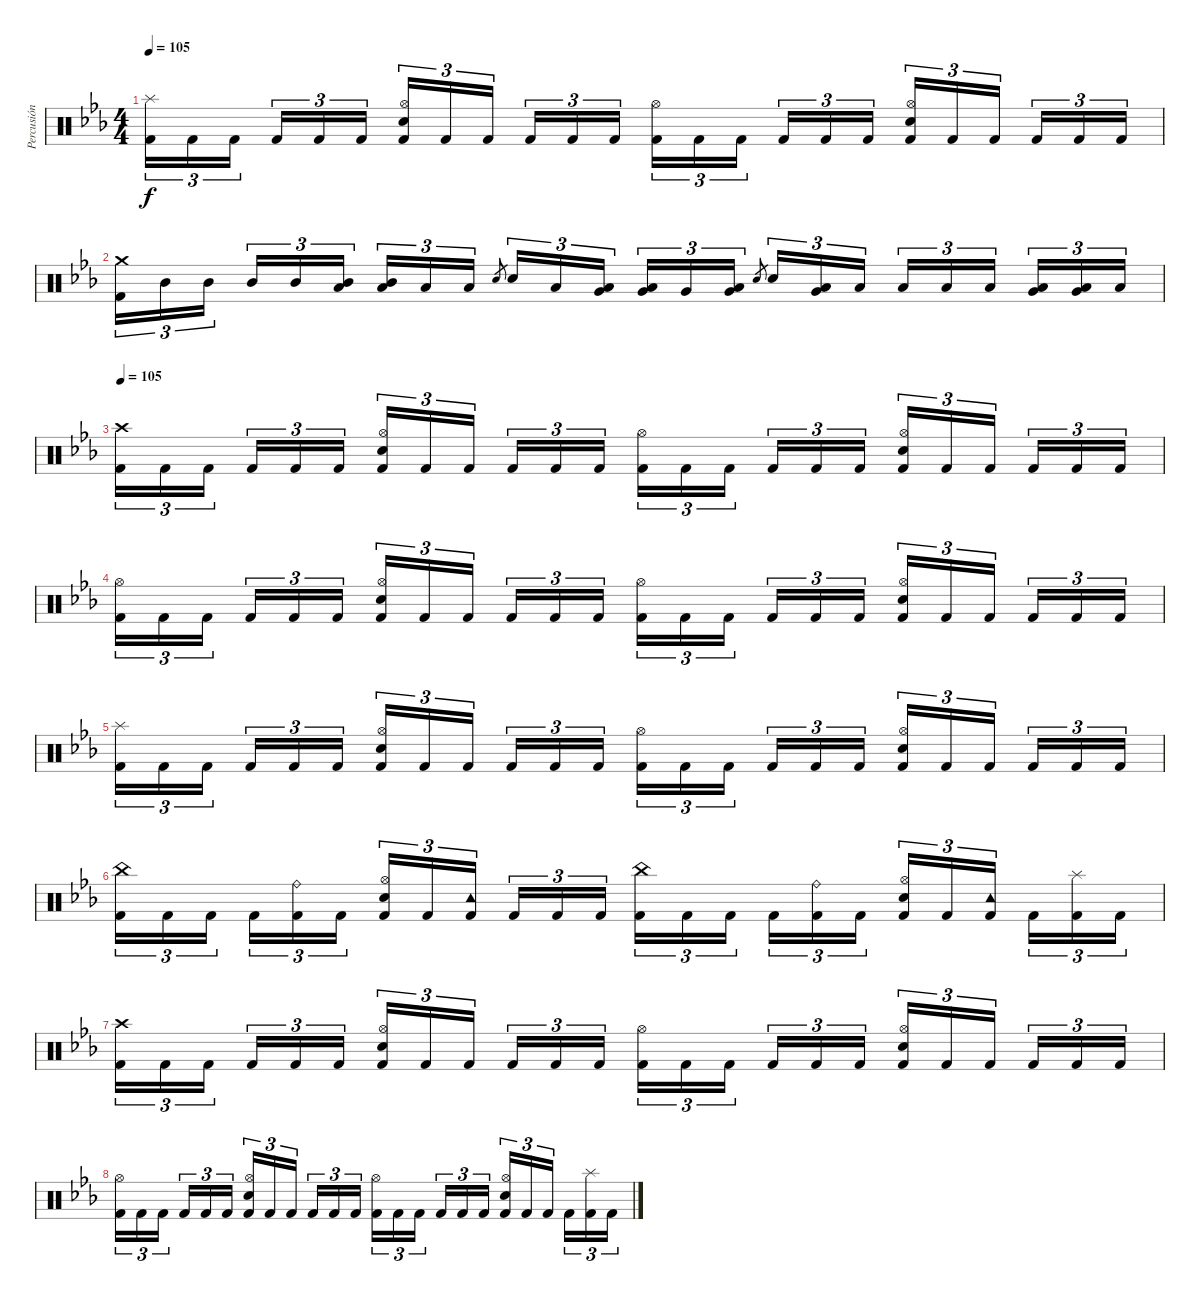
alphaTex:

\track ("Percusión" "Percusión") {instrument percussion}
\staff {score}
\articulation defaults
\ts (4 4)
\tempo 105
\clef neutral
\ks cminor
("Splash (hit)" "Kick (hit) 2").16{tu (3 2) dy f} "Kick (hit) 2".16{tu (3 2)} "Kick (hit) 2".16{tu (3 2) beam splitsecondary} "Kick (hit) 2".16{tu (3 2)} "Kick (hit) 2".16{tu (3 2)} "Kick (hit) 2".16{tu (3 2)} ("Hi-Hat (open)" "Snare (hit) 2" "Kick (hit) 2").16{tu (3 2)} "Kick (hit) 2".16{tu (3 2)} "Kick (hit) 2".16{tu (3 2) beam splitsecondary} "Kick (hit) 2".16{tu (3 2)} "Kick (hit) 2".16{tu (3 2)} "Kick (hit) 2".16{tu (3 2)} ("Hi-Hat (open)" "Kick (hit) 2").16{tu (3 2)} "Kick (hit) 2".16{tu (3 2)} "Kick (hit) 2".16{tu (3 2) beam splitsecondary} "Kick (hit) 2".16{tu (3 2)} "Kick (hit) 2".16{tu (3 2)} "Kick (hit) 2".16{tu (3 2)} ("Hi-Hat (open)" "Snare (hit) 2" "Kick (hit) 2").16{tu (3 2)} "Kick (hit) 2".16{tu (3 2)} "Kick (hit) 2".16{tu (3 2) beam splitsecondary} "Kick (hit) 2".16{tu (3 2)} "Kick (hit) 2".16{tu (3 2)} "Kick (hit) 2".16{tu (3 2)} |
("Crash medium (hit)" "Kick (hit) 2").16{tu (3 2)} "Mid Tom (hit)".16{tu (3 2)} "Mid Tom (hit)".16{tu (3 2) beam splitsecondary} "Mid Tom (hit)".16{tu (3 2)} "Mid Tom (hit)".16{tu (3 2)} ("Low Tom (hit)" "Mid Tom (hit)").16{tu (3 2)} ("Low Tom (hit)" "Mid Tom (hit)").16{tu (3 2)} "Low Tom (hit)".16{tu (3 2)} "Low Tom (hit)".16{tu (3 2)} "Snare (hit) 2".8{gr beam splitsecondary} "Snare (hit) 2".16{tu (3 2)} "Low Tom (hit)".16{tu (3 2)} ("Low Tom (hit)" "Very Low Tom (hit)").16{tu (3 2)} ("Low Tom (hit)" "Very Low Tom (hit)").16{tu (3 2)} "Very Low Tom (hit)".16{tu (3 2)} ("Very Low Tom (hit)" "Low Floor Tom (hit)").16{tu (3 2)} "Snare (hit) 2".8{gr beam splitsecondary} "Snare (hit) 2".16{tu (3 2)} ("Very Low Tom (hit)" "Low Floor Tom (hit)").16{tu (3 2)} "Low Floor Tom (hit)".16{tu (3 2)} "Low Floor Tom (hit)".16{tu (3 2)} "Low Floor Tom (hit)".16{tu (3 2)} "Low Floor Tom (hit)".16{tu (3 2) beam splitsecondary} ("Very Low Tom (hit)" "Low Floor Tom (hit)").16{tu (3 2)} ("Very Low Tom (hit)" "Low Floor Tom (hit)").16{tu (3 2)} "Low Floor Tom (hit)".16{tu (3 2)} |
\tempo 105
("Crash high (hit)" "Kick (hit) 2").16{tu (3 2)} "Kick (hit) 2".16{tu (3 2)} "Kick (hit) 2".16{tu (3 2) beam splitsecondary} "Kick (hit) 2".16{tu (3 2)} "Kick (hit) 2".16{tu (3 2)} "Kick (hit) 2".16{tu (3 2)} ("Hi-Hat (open)" "Snare (hit) 2" "Kick (hit) 2").16{tu (3 2)} "Kick (hit) 2".16{tu (3 2)} "Kick (hit) 2".16{tu (3 2) beam splitsecondary} "Kick (hit) 2".16{tu (3 2)} "Kick (hit) 2".16{tu (3 2)} "Kick (hit) 2".16{tu (3 2)} ("Hi-Hat (open)" "Kick (hit) 2").16{tu (3 2)} "Kick (hit) 2".16{tu (3 2)} "Kick (hit) 2".16{tu (3 2) beam splitsecondary} "Kick (hit) 2".16{tu (3 2)} "Kick (hit) 2".16{tu (3 2)} "Kick (hit) 2".16{tu (3 2)} ("Hi-Hat (open)" "Snare (hit) 2" "Kick (hit) 2").16{tu (3 2)} "Kick (hit) 2".16{tu (3 2)} "Kick (hit) 2".16{tu (3 2) beam splitsecondary} "Kick (hit) 2".16{tu (3 2)} "Kick (hit) 2".16{tu (3 2)} "Kick (hit) 2".16{tu (3 2)} |
("Hi-Hat (open)" "Kick (hit) 2").16{tu (3 2)} "Kick (hit) 2".16{tu (3 2)} "Kick (hit) 2".16{tu (3 2) beam splitsecondary} "Kick (hit) 2".16{tu (3 2)} "Kick (hit) 2".16{tu (3 2)} "Kick (hit) 2".16{tu (3 2)} ("Hi-Hat (open)" "Snare (hit) 2" "Kick (hit) 2").16{tu (3 2)} "Kick (hit) 2".16{tu (3 2)} "Kick (hit) 2".16{tu (3 2) beam splitsecondary} "Kick (hit) 2".16{tu (3 2)} "Kick (hit) 2".16{tu (3 2)} "Kick (hit) 2".16{tu (3 2)} ("Hi-Hat (open)" "Kick (hit) 2").16{tu (3 2)} "Kick (hit) 2".16{tu (3 2)} "Kick (hit) 2".16{tu (3 2) beam splitsecondary} "Kick (hit) 2".16{tu (3 2)} "Kick (hit) 2".16{tu (3 2)} "Kick (hit) 2".16{tu (3 2)} ("Hi-Hat (open)" "Snare (hit) 2" "Kick (hit) 2").16{tu (3 2)} "Kick (hit) 2".16{tu (3 2)} "Kick (hit) 2".16{tu (3 2) beam splitsecondary} "Kick (hit) 2".16{tu (3 2)} "Kick (hit) 2".16{tu (3 2)} "Kick (hit) 2".16{tu (3 2)} |
("Splash (hit)" "Kick (hit) 2").16{tu (3 2)} "Kick (hit) 2".16{tu (3 2)} "Kick (hit) 2".16{tu (3 2) beam splitsecondary} "Kick (hit) 2".16{tu (3 2)} "Kick (hit) 2".16{tu (3 2)} "Kick (hit) 2".16{tu (3 2)} ("Hi-Hat (open)" "Snare (hit) 2" "Kick (hit) 2").16{tu (3 2)} "Kick (hit) 2".16{tu (3 2)} "Kick (hit) 2".16{tu (3 2) beam splitsecondary} "Kick (hit) 2".16{tu (3 2)} "Kick (hit) 2".16{tu (3 2)} "Kick (hit) 2".16{tu (3 2)} ("Hi-Hat (open)" "Kick (hit) 2").16{tu (3 2)} "Kick (hit) 2".16{tu (3 2)} "Kick (hit) 2".16{tu (3 2) beam splitsecondary} "Kick (hit) 2".16{tu (3 2)} "Kick (hit) 2".16{tu (3 2)} "Kick (hit) 2".16{tu (3 2)} ("Hi-Hat (open)" "Snare (hit) 2" "Kick (hit) 2").16{tu (3 2)} "Kick (hit) 2".16{tu (3 2)} "Kick (hit) 2".16{tu (3 2) beam splitsecondary} "Kick (hit) 2".16{tu (3 2)} "Kick (hit) 2".16{tu (3 2)} "Kick (hit) 2".16{tu (3 2)} |
("China (hit)" "Kick (hit) 2").16{tu (3 2)} "Kick (hit) 2".16{tu (3 2)} "Kick (hit) 2".16{tu (3 2) beam splitsecondary} "Kick (hit) 2".16{tu (3 2)} ("Ride (bell)" "Kick (hit) 2").16{tu (3 2)} "Kick (hit) 2".16{tu (3 2)} ("Hi-Hat (open)" "Snare (hit) 2" "Kick (hit) 2").16{tu (3 2)} "Kick (hit) 2".16{tu (3 2)} ("Tambourine (hit)" "Kick (hit) 2").16{tu (3 2) beam splitsecondary} "Kick (hit) 2".16{tu (3 2)} "Kick (hit) 2".16{tu (3 2)} "Kick (hit) 2".16{tu (3 2)} ("China (hit)" "Kick (hit) 2").16{tu (3 2)} "Kick (hit) 2".16{tu (3 2)} "Kick (hit) 2".16{tu (3 2) beam splitsecondary} "Kick (hit) 2".16{tu (3 2)} ("Ride (bell)" "Kick (hit) 2").16{tu (3 2)} "Kick (hit) 2".16{tu (3 2)} ("Hi-Hat (open)" "Snare (hit) 2" "Kick (hit) 2").16{tu (3 2)} "Kick (hit) 2".16{tu (3 2)} ("Tambourine (hit)" "Kick (hit) 2").16{tu (3 2) beam splitsecondary} "Kick (hit) 2".16{tu (3 2)} ("Splash (hit)" "Kick (hit) 2").16{tu (3 2)} "Kick (hit) 2".16{tu (3 2)} |
("Crash high (hit)" "Kick (hit) 2").16{tu (3 2)} "Kick (hit) 2".16{tu (3 2)} "Kick (hit) 2".16{tu (3 2) beam splitsecondary} "Kick (hit) 2".16{tu (3 2)} "Kick (hit) 2".16{tu (3 2)} "Kick (hit) 2".16{tu (3 2)} ("Hi-Hat (open)" "Snare (hit) 2" "Kick (hit) 2").16{tu (3 2)} "Kick (hit) 2".16{tu (3 2)} "Kick (hit) 2".16{tu (3 2) beam splitsecondary} "Kick (hit) 2".16{tu (3 2)} "Kick (hit) 2".16{tu (3 2)} "Kick (hit) 2".16{tu (3 2)} ("Hi-Hat (open)" "Kick (hit) 2").16{tu (3 2)} "Kick (hit) 2".16{tu (3 2)} "Kick (hit) 2".16{tu (3 2) beam splitsecondary} "Kick (hit) 2".16{tu (3 2)} "Kick (hit) 2".16{tu (3 2)} "Kick (hit) 2".16{tu (3 2)} ("Hi-Hat (open)" "Snare (hit) 2" "Kick (hit) 2").16{tu (3 2)} "Kick (hit) 2".16{tu (3 2)} "Kick (hit) 2".16{tu (3 2) beam splitsecondary} "Kick (hit) 2".16{tu (3 2)} "Kick (hit) 2".16{tu (3 2)} "Kick (hit) 2".16{tu (3 2)} |
("Hi-Hat (open)" "Kick (hit) 2").16{tu (3 2)} "Kick (hit) 2".16{tu (3 2)} "Kick (hit) 2".16{tu (3 2) beam splitsecondary} "Kick (hit) 2".16{tu (3 2)} "Kick (hit) 2".16{tu (3 2)} "Kick (hit) 2".16{tu (3 2)} ("Hi-Hat (open)" "Snare (hit) 2" "Kick (hit) 2").16{tu (3 2)} "Kick (hit) 2".16{tu (3 2)} "Kick (hit) 2".16{tu (3 2) beam splitsecondary} "Kick (hit) 2".16{tu (3 2)} "Kick (hit) 2".16{tu (3 2)} "Kick (hit) 2".16{tu (3 2)} ("Hi-Hat (open)" "Kick (hit) 2").16{tu (3 2)} "Kick (hit) 2".16{tu (3 2)} "Kick (hit) 2".16{tu (3 2) beam splitsecondary} "Kick (hit) 2".16{tu (3 2)} "Kick (hit) 2".16{tu (3 2)} "Kick (hit) 2".16{tu (3 2)} ("Hi-Hat (open)" "Snare (hit) 2" "Kick (hit) 2").16{tu (3 2)} "Kick (hit) 2".16{tu (3 2)} "Kick (hit) 2".16{tu (3 2) beam splitsecondary} "Kick (hit) 2".16{tu (3 2)} ("Splash (hit)" "Kick (hit) 2").16{tu (3 2)} "Kick (hit) 2".16{tu (3 2)}
